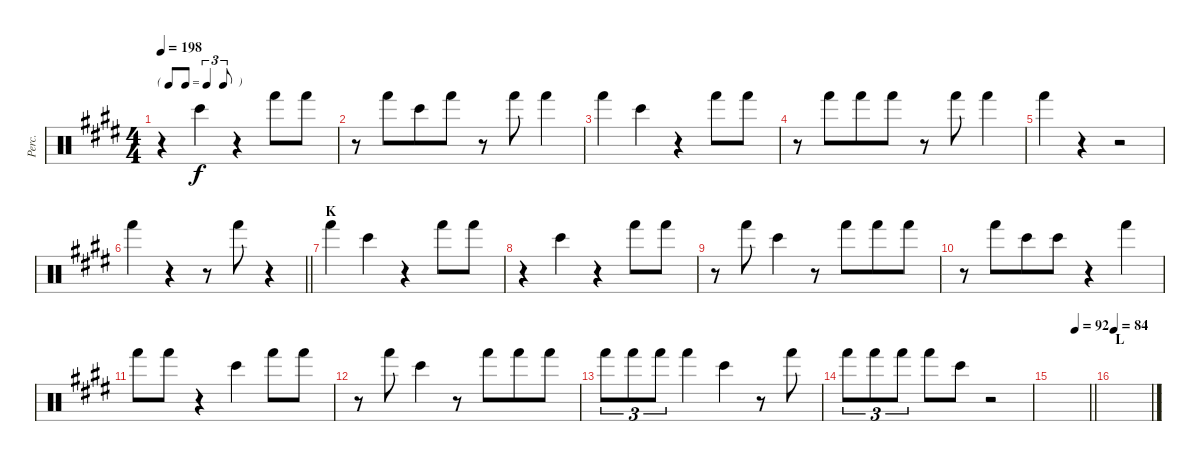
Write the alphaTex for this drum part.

\track ("Perc." "Perc.") {instrument percussion}
\staff {score}
\articulation defaults
\ts (4 4)
\tf triplet8th
\tempo 198
\clef neutral
\ks e
r.4{dy f} "Bongo High (hit)".4 r.4{beam merge} "Hand (hit)".8 "Hand (hit)".8 |
r.8 "Hand (hit)".8{beam merge} "Bongo High (hit)".8 "Hand (hit)".8 r.8 "Hand (hit)".8 "Hand (hit)".4 |
"Hand (hit)".4 "Bongo High (hit)".4 r.4 "Hand (hit)".8 "Hand (hit)".8 |
r.8 "Hand (hit)".8{beam merge} "Hand (hit)".8 "Hand (hit)".8 r.8 "Hand (hit)".8 "Hand (hit)".4 |
"Hand (hit)".4 r.4 r.2 |
\barLineRight lightlight "Hand (hit)".4
r.4 r.8 "Hand (hit)".8 r.4 |
\section ("" "K")
"Hand (hit)".4 "Bongo High (hit)".4 r.4 "Hand (hit)".8 "Hand (hit)".8 |
r.4 "Bongo High (hit)".4 r.4 "Hand (hit)".8 "Hand (hit)".8 |
r.8 "Hand (hit)".8 "Bongo High (hit)".4 r.8 "Hand (hit)".8{beam merge} "Hand (hit)".8 "Hand (hit)".8 |
r.8 "Hand (hit)".8{beam merge} "Bongo High (hit)".8 "Bongo High (hit)".8 r.4 "Hand (hit)".4 |
"Hand (hit)".8 "Hand (hit)".8 r.4 "Bongo High (hit)".4 "Hand (hit)".8 "Hand (hit)".8 |
r.8 "Hand (hit)".8 "Bongo High (hit)".4 r.8 "Hand (hit)".8{beam merge} "Hand (hit)".8 "Hand (hit)".8 |
"Hand (hit)".8{tu (3 2)} "Hand (hit)".8{tu (3 2)} "Hand (hit)".8{tu (3 2)} "Hand (hit)".4 "Bongo High (hit)".4 r.8 "Hand (hit)".8 |
"Hand (hit)".8{tu (3 2)} "Hand (hit)".8{tu (3 2)} "Hand (hit)".8{tu (3 2)} "Hand (hit)".8 "Bongo High (hit)".8 r.2 |
\tempo (92 0.625)
\barLineRight lightlight
|
\section ("" "L")
\tempo 84
